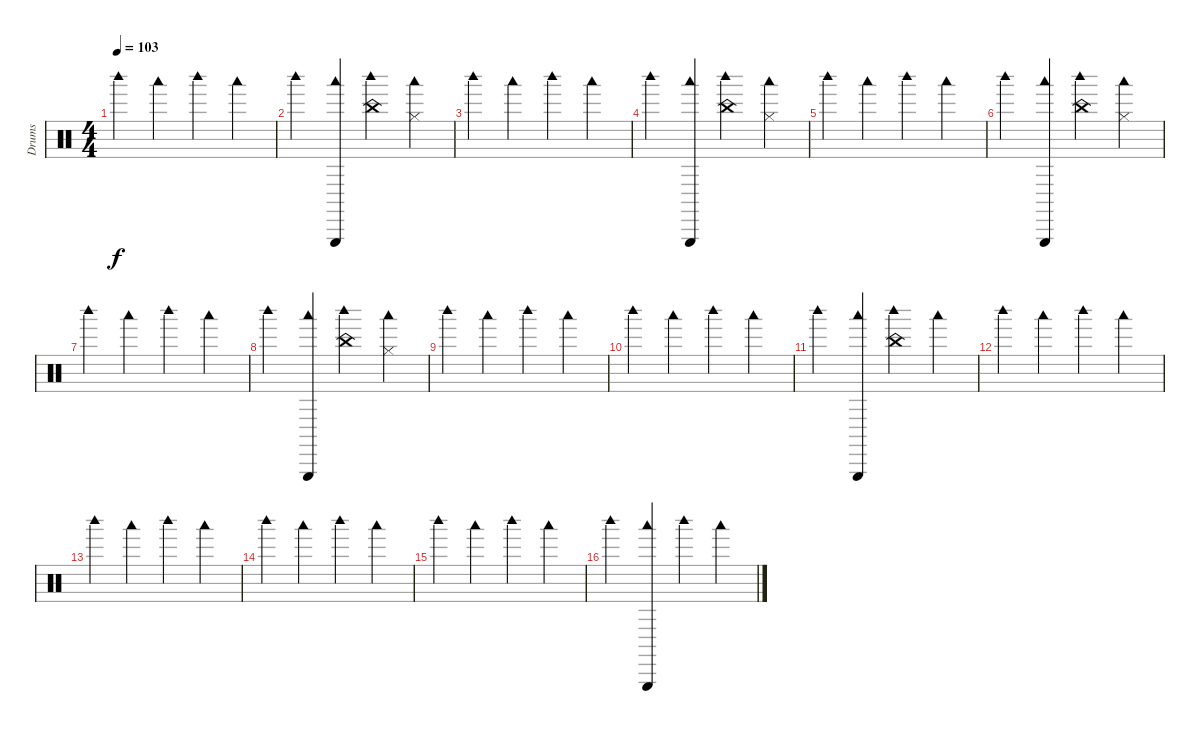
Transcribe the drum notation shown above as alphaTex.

\track ("Drums" "Drums") {instrument percussion}
\staff {score}
\articulation defaults
\ts (4 4)
\tempo 103
\clef neutral
\ks c "Woodblock high (hit)".4{dy f} "Woodblock low (hit)".4 "Woodblock high (hit)".4 "Woodblock low (hit)".4
|
"Woodblock high (hit)".4 ("Woodblock low (hit)" "Triangle (hit)").4 ("Woodblock high (hit)" "China (hit)").4 ("Woodblock low (hit)" "Hi-Hat (closed)").4 |
"Woodblock high (hit)".4 "Woodblock low (hit)".4 "Woodblock high (hit)".4 "Woodblock low (hit)".4 |
"Woodblock high (hit)".4 ("Woodblock low (hit)" "Triangle (hit)").4 ("Woodblock high (hit)" "China (hit)").4 ("Woodblock low (hit)" "Hi-Hat (closed)").4 |
"Woodblock high (hit)".4 "Woodblock low (hit)".4 "Woodblock high (hit)".4 "Woodblock low (hit)".4 |
"Woodblock high (hit)".4 ("Woodblock low (hit)" "Triangle (hit)").4 ("Woodblock high (hit)" "China (hit)").4 ("Woodblock low (hit)" "Hi-Hat (closed)").4 |
"Woodblock high (hit)".4 "Woodblock low (hit)".4 "Woodblock high (hit)".4 "Woodblock low (hit)".4 |
"Woodblock high (hit)".4 ("Woodblock low (hit)" "Triangle (hit)").4 ("Woodblock high (hit)" "China (hit)").4 ("Woodblock low (hit)" "Hi-Hat (closed)").4 |
"Woodblock high (hit)".4 "Woodblock low (hit)".4 "Woodblock high (hit)".4 "Woodblock low (hit)".4 |
"Woodblock high (hit)".4 "Woodblock low (hit)".4 "Woodblock high (hit)".4 "Woodblock low (hit)".4 |
"Woodblock high (hit)".4 ("Woodblock low (hit)" "Triangle (hit)").4 ("Woodblock high (hit)" "China (hit)").4 "Woodblock low (hit)".4 |
"Woodblock high (hit)".4 "Woodblock low (hit)".4 "Woodblock high (hit)".4 "Woodblock low (hit)".4 |
"Woodblock high (hit)".4 "Woodblock low (hit)".4 "Woodblock high (hit)".4 "Woodblock low (hit)".4 |
"Woodblock high (hit)".4 "Woodblock low (hit)".4 "Woodblock high (hit)".4 "Woodblock low (hit)".4 |
"Woodblock high (hit)".4 "Woodblock low (hit)".4 "Woodblock high (hit)".4 "Woodblock low (hit)".4 |
"Woodblock high (hit)".4 ("Woodblock low (hit)" "Triangle (hit)").4 "Woodblock high (hit)".4 "Woodblock low (hit)".4
